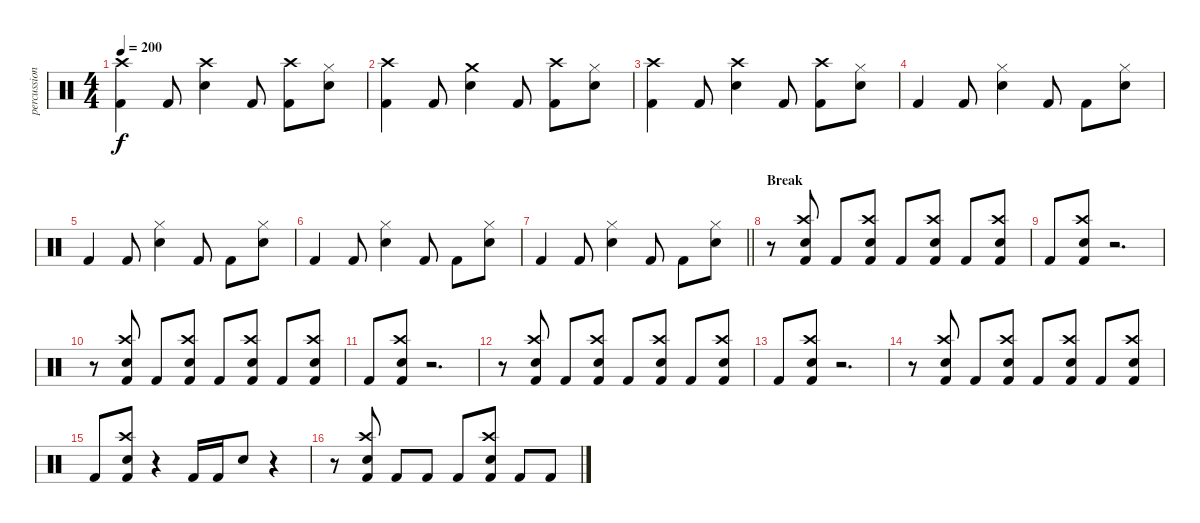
\track ("percussion" "percussion") {instrument percussion}
\staff {score}
\articulation defaults
\ts (4 4)
\tempo 200
\clef neutral
\ks c
("Kick (hit) 2" "Crash high (hit)").4{dy f} "Kick (hit) 2".8 ("Electric Snare (hit)" "Crash high (hit)").4 "Kick (hit) 2".8 ("Kick (hit) 2" "Crash high (hit)").8 ("Electric Snare (hit)" "Hi-Hat (closed)").8 |
("Kick (hit) 2" "Crash high (hit)").4 "Kick (hit) 2".8 ("Electric Snare (hit)" "Crash medium (hit)").4 "Kick (hit) 2".8 ("Kick (hit) 2" "Crash high (hit)").8 ("Electric Snare (hit)" "Hi-Hat (closed)").8 |
("Kick (hit) 2" "Crash high (hit)").4 "Kick (hit) 2".8 ("Electric Snare (hit)" "Crash high (hit)").4 "Kick (hit) 2".8 ("Kick (hit) 2" "Crash high (hit)").8 ("Electric Snare (hit)" "Hi-Hat (closed)").8 |
"Kick (hit) 2".4 "Kick (hit) 2".8 ("Electric Snare (hit)" "Hi-Hat (closed)").4 "Kick (hit) 2".8 "Kick (hit) 2".8 ("Electric Snare (hit)" "Hi-Hat (closed)").8 |
"Kick (hit) 2".4 "Kick (hit) 2".8 ("Electric Snare (hit)" "Hi-Hat (closed)").4 "Kick (hit) 2".8 "Kick (hit) 2".8 ("Electric Snare (hit)" "Hi-Hat (closed)").8 |
"Kick (hit) 2".4 "Kick (hit) 2".8 ("Electric Snare (hit)" "Hi-Hat (closed)").4 "Kick (hit) 2".8 "Kick (hit) 2".8 ("Electric Snare (hit)" "Hi-Hat (closed)").8 |
\barLineRight lightlight "Kick (hit) 2".4 "Kick (hit) 2".8
("Electric Snare (hit)" "Hi-Hat (closed)").4 "Kick (hit) 2".8 "Kick (hit) 2".8 ("Electric Snare (hit)" "Hi-Hat (closed)").8 |
\section ("" "Break")
r.8 ("Kick (hit) 2" "Electric Snare (hit)" "Crash high (hit)").8 "Kick (hit) 2".8 ("Kick (hit) 2" "Electric Snare (hit)" "Crash high (hit)").8 "Kick (hit) 2".8 ("Kick (hit) 2" "Electric Snare (hit)" "Crash high (hit)").8 "Kick (hit) 2".8 ("Kick (hit) 2" "Electric Snare (hit)" "Crash high (hit)").8 |
"Kick (hit) 2".8 ("Kick (hit) 2" "Electric Snare (hit)" "Crash high (hit)").8 r.2{d} |
r.8 ("Kick (hit) 2" "Electric Snare (hit)" "Crash high (hit)").8 "Kick (hit) 2".8 ("Kick (hit) 2" "Electric Snare (hit)" "Crash high (hit)").8 "Kick (hit) 2".8 ("Kick (hit) 2" "Electric Snare (hit)" "Crash high (hit)").8 "Kick (hit) 2".8 ("Kick (hit) 2" "Electric Snare (hit)" "Crash high (hit)").8 |
"Kick (hit) 2".8 ("Kick (hit) 2" "Electric Snare (hit)" "Crash high (hit)").8 r.2{d} |
r.8 ("Kick (hit) 2" "Electric Snare (hit)" "Crash high (hit)").8 "Kick (hit) 2".8 ("Kick (hit) 2" "Electric Snare (hit)" "Crash high (hit)").8 "Kick (hit) 2".8 ("Kick (hit) 2" "Electric Snare (hit)" "Crash high (hit)").8 "Kick (hit) 2".8 ("Kick (hit) 2" "Electric Snare (hit)" "Crash high (hit)").8 |
"Kick (hit) 2".8 ("Kick (hit) 2" "Electric Snare (hit)" "Crash high (hit)").8 r.2{d} |
r.8 ("Kick (hit) 2" "Electric Snare (hit)" "Crash high (hit)").8 "Kick (hit) 2".8 ("Kick (hit) 2" "Electric Snare (hit)" "Crash high (hit)").8 "Kick (hit) 2".8 ("Kick (hit) 2" "Electric Snare (hit)" "Crash high (hit)").8 "Kick (hit) 2".8 ("Kick (hit) 2" "Electric Snare (hit)" "Crash high (hit)").8 |
"Kick (hit) 2".8 ("Kick (hit) 2" "Electric Snare (hit)" "Crash high (hit)").8 r.4 "Kick (hit) 2".16 "Kick (hit) 2".16 "Electric Snare (hit)".8 r.4 |
r.8 ("Kick (hit) 2" "Electric Snare (hit)" "Crash high (hit)").8 "Kick (hit) 2".8 "Kick (hit) 2".8 "Kick (hit) 2".8 ("Kick (hit) 2" "Electric Snare (hit)" "Crash high (hit)").8 "Kick (hit) 2".8 "Kick (hit) 2".8
